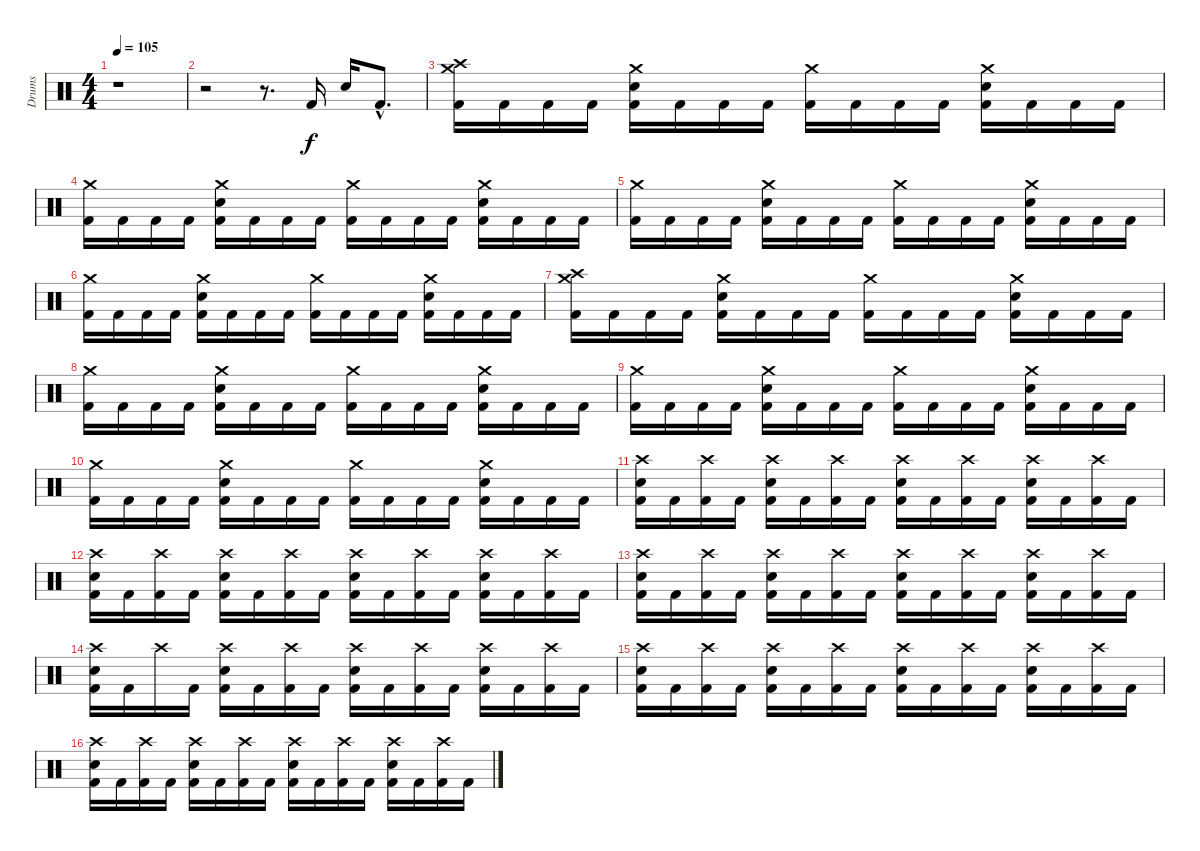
\track ("Drums" "Drums") {instrument percussion}
\staff {score}
\articulation defaults
\ts (4 4)
\tempo 105
\clef neutral
\ks c
r.1{dy f} |
r.2 r.8{d} "Kick (hit) 2".16 "Snare (hit) 2".16 "Kick (hit) 2"{hac}.8{d} |
("Crash medium (hit)" "Crash high (hit)" "Kick (hit) 2").16 "Kick (hit) 2".16 "Kick (hit) 2".16 "Kick (hit) 2".16 ("Crash medium (hit)" "Snare (hit) 2" "Kick (hit) 2").16 "Kick (hit) 2".16 "Kick (hit) 2".16 "Kick (hit) 2".16 ("Crash medium (hit)" "Kick (hit) 2").16 "Kick (hit) 2".16 "Kick (hit) 2".16 "Kick (hit) 2".16 ("Crash medium (hit)" "Snare (hit) 2" "Kick (hit) 2").16 "Kick (hit) 2".16 "Kick (hit) 2".16 "Kick (hit) 2".16 |
("Crash medium (hit)" "Kick (hit) 2").16 "Kick (hit) 2".16 "Kick (hit) 2".16 "Kick (hit) 2".16 ("Crash medium (hit)" "Snare (hit) 2" "Kick (hit) 2").16 "Kick (hit) 2".16 "Kick (hit) 2".16 "Kick (hit) 2".16 ("Crash medium (hit)" "Kick (hit) 2").16 "Kick (hit) 2".16 "Kick (hit) 2".16 "Kick (hit) 2".16 ("Crash medium (hit)" "Snare (hit) 2" "Kick (hit) 2").16 "Kick (hit) 2".16 "Kick (hit) 2".16 "Kick (hit) 2".16 |
("Crash medium (hit)" "Kick (hit) 2").16 "Kick (hit) 2".16 "Kick (hit) 2".16 "Kick (hit) 2".16 ("Crash medium (hit)" "Snare (hit) 2" "Kick (hit) 2").16 "Kick (hit) 2".16 "Kick (hit) 2".16 "Kick (hit) 2".16 ("Crash medium (hit)" "Kick (hit) 2").16 "Kick (hit) 2".16 "Kick (hit) 2".16 "Kick (hit) 2".16 ("Crash medium (hit)" "Snare (hit) 2" "Kick (hit) 2").16 "Kick (hit) 2".16 "Kick (hit) 2".16 "Kick (hit) 2".16 |
("Crash medium (hit)" "Kick (hit) 2").16 "Kick (hit) 2".16 "Kick (hit) 2".16 "Kick (hit) 2".16 ("Crash medium (hit)" "Snare (hit) 2" "Kick (hit) 2").16 "Kick (hit) 2".16 "Kick (hit) 2".16 "Kick (hit) 2".16 ("Crash medium (hit)" "Kick (hit) 2").16 "Kick (hit) 2".16 "Kick (hit) 2".16 "Kick (hit) 2".16 ("Crash medium (hit)" "Snare (hit) 2" "Kick (hit) 2").16 "Kick (hit) 2".16 "Kick (hit) 2".16 "Kick (hit) 2".16 |
("Crash high (hit)" "Crash medium (hit)" "Kick (hit) 2").16 "Kick (hit) 2".16 "Kick (hit) 2".16 "Kick (hit) 2".16 ("Crash medium (hit)" "Snare (hit) 2" "Kick (hit) 2").16 "Kick (hit) 2".16 "Kick (hit) 2".16 "Kick (hit) 2".16 ("Crash medium (hit)" "Kick (hit) 2").16 "Kick (hit) 2".16 "Kick (hit) 2".16 "Kick (hit) 2".16 ("Crash medium (hit)" "Snare (hit) 2" "Kick (hit) 2").16 "Kick (hit) 2".16 "Kick (hit) 2".16 "Kick (hit) 2".16 |
("Crash medium (hit)" "Kick (hit) 2").16 "Kick (hit) 2".16 "Kick (hit) 2".16 "Kick (hit) 2".16 ("Crash medium (hit)" "Snare (hit) 2" "Kick (hit) 2").16 "Kick (hit) 2".16 "Kick (hit) 2".16 "Kick (hit) 2".16 ("Crash medium (hit)" "Kick (hit) 2").16 "Kick (hit) 2".16 "Kick (hit) 2".16 "Kick (hit) 2".16 ("Crash medium (hit)" "Snare (hit) 2" "Kick (hit) 2").16 "Kick (hit) 2".16 "Kick (hit) 2".16 "Kick (hit) 2".16 |
("Crash medium (hit)" "Kick (hit) 2").16 "Kick (hit) 2".16 "Kick (hit) 2".16 "Kick (hit) 2".16 ("Crash medium (hit)" "Snare (hit) 2" "Kick (hit) 2").16 "Kick (hit) 2".16 "Kick (hit) 2".16 "Kick (hit) 2".16 ("Crash medium (hit)" "Kick (hit) 2").16 "Kick (hit) 2".16 "Kick (hit) 2".16 "Kick (hit) 2".16 ("Crash medium (hit)" "Snare (hit) 2" "Kick (hit) 2").16 "Kick (hit) 2".16 "Kick (hit) 2".16 "Kick (hit) 2".16 |
("Crash medium (hit)" "Kick (hit) 2").16 "Kick (hit) 2".16 "Kick (hit) 2".16 "Kick (hit) 2".16 ("Crash medium (hit)" "Snare (hit) 2" "Kick (hit) 2").16 "Kick (hit) 2".16 "Kick (hit) 2".16 "Kick (hit) 2".16 ("Crash medium (hit)" "Kick (hit) 2").16 "Kick (hit) 2".16 "Kick (hit) 2".16 "Kick (hit) 2".16 ("Crash medium (hit)" "Snare (hit) 2" "Kick (hit) 2").16 "Kick (hit) 2".16 "Kick (hit) 2".16 "Kick (hit) 2".16 |
("Crash high (hit)" "Snare (hit) 2" "Kick (hit) 2").16 "Kick (hit) 2".16 ("Crash high (hit)" "Kick (hit) 2").16 "Kick (hit) 2".16 ("Crash high (hit)" "Snare (hit) 2" "Kick (hit) 2").16 "Kick (hit) 2".16 ("Crash high (hit)" "Kick (hit) 2").16 "Kick (hit) 2".16 ("Crash high (hit)" "Snare (hit) 2" "Kick (hit) 2").16 "Kick (hit) 2".16 ("Crash high (hit)" "Kick (hit) 2").16 "Kick (hit) 2".16 ("Crash high (hit)" "Snare (hit) 2" "Kick (hit) 2").16 "Kick (hit) 2".16 ("Crash high (hit)" "Kick (hit) 2").16 "Kick (hit) 2".16 |
("Crash high (hit)" "Snare (hit) 2" "Kick (hit) 2").16 "Kick (hit) 2".16 ("Crash high (hit)" "Kick (hit) 2").16 "Kick (hit) 2".16 ("Crash high (hit)" "Snare (hit) 2" "Kick (hit) 2").16 "Kick (hit) 2".16 ("Crash high (hit)" "Kick (hit) 2").16 "Kick (hit) 2".16 ("Crash high (hit)" "Snare (hit) 2" "Kick (hit) 2").16 "Kick (hit) 2".16 ("Crash high (hit)" "Kick (hit) 2").16 "Kick (hit) 2".16 ("Crash high (hit)" "Snare (hit) 2" "Kick (hit) 2").16 "Kick (hit) 2".16 ("Crash high (hit)" "Kick (hit) 2").16 "Kick (hit) 2".16 |
("Crash high (hit)" "Snare (hit) 2" "Kick (hit) 2").16 "Kick (hit) 2".16 ("Crash high (hit)" "Kick (hit) 2").16 "Kick (hit) 2".16 ("Crash high (hit)" "Snare (hit) 2" "Kick (hit) 2").16 "Kick (hit) 2".16 ("Crash high (hit)" "Kick (hit) 2").16 "Kick (hit) 2".16 ("Crash high (hit)" "Snare (hit) 2" "Kick (hit) 2").16 "Kick (hit) 2".16 ("Crash high (hit)" "Kick (hit) 2").16 "Kick (hit) 2".16 ("Crash high (hit)" "Snare (hit) 2" "Kick (hit) 2").16 "Kick (hit) 2".16 ("Crash high (hit)" "Kick (hit) 2").16 "Kick (hit) 2".16 |
("Crash high (hit)" "Snare (hit) 2" "Kick (hit) 2").16 "Kick (hit) 2".16 "Crash high (hit)".16 "Kick (hit) 2".16 ("Crash high (hit)" "Snare (hit) 2" "Kick (hit) 2").16 "Kick (hit) 2".16 ("Crash high (hit)" "Kick (hit) 2").16 "Kick (hit) 2".16 ("Crash high (hit)" "Snare (hit) 2" "Kick (hit) 2").16 "Kick (hit) 2".16 ("Crash high (hit)" "Kick (hit) 2").16 "Kick (hit) 2".16 ("Crash high (hit)" "Snare (hit) 2" "Kick (hit) 2").16 "Kick (hit) 2".16 ("Crash high (hit)" "Kick (hit) 2").16 "Kick (hit) 2".16 |
("Crash high (hit)" "Snare (hit) 2" "Kick (hit) 2").16 "Kick (hit) 2".16 ("Crash high (hit)" "Kick (hit) 2").16 "Kick (hit) 2".16 ("Crash high (hit)" "Snare (hit) 2" "Kick (hit) 2").16 "Kick (hit) 2".16 ("Crash high (hit)" "Kick (hit) 2").16 "Kick (hit) 2".16 ("Crash high (hit)" "Snare (hit) 2" "Kick (hit) 2").16 "Kick (hit) 2".16 ("Crash high (hit)" "Kick (hit) 2").16 "Kick (hit) 2".16 ("Crash high (hit)" "Snare (hit) 2" "Kick (hit) 2").16 "Kick (hit) 2".16 ("Crash high (hit)" "Kick (hit) 2").16 "Kick (hit) 2".16 |
("Crash high (hit)" "Snare (hit) 2" "Kick (hit) 2").16 "Kick (hit) 2".16 ("Crash high (hit)" "Kick (hit) 2").16 "Kick (hit) 2".16 ("Crash high (hit)" "Snare (hit) 2" "Kick (hit) 2").16 "Kick (hit) 2".16 ("Crash high (hit)" "Kick (hit) 2").16 "Kick (hit) 2".16 ("Crash high (hit)" "Snare (hit) 2" "Kick (hit) 2").16 "Kick (hit) 2".16 ("Crash high (hit)" "Kick (hit) 2").16 "Kick (hit) 2".16 ("Crash high (hit)" "Snare (hit) 2" "Kick (hit) 2").16 "Kick (hit) 2".16 ("Crash high (hit)" "Kick (hit) 2").16 "Kick (hit) 2".16
